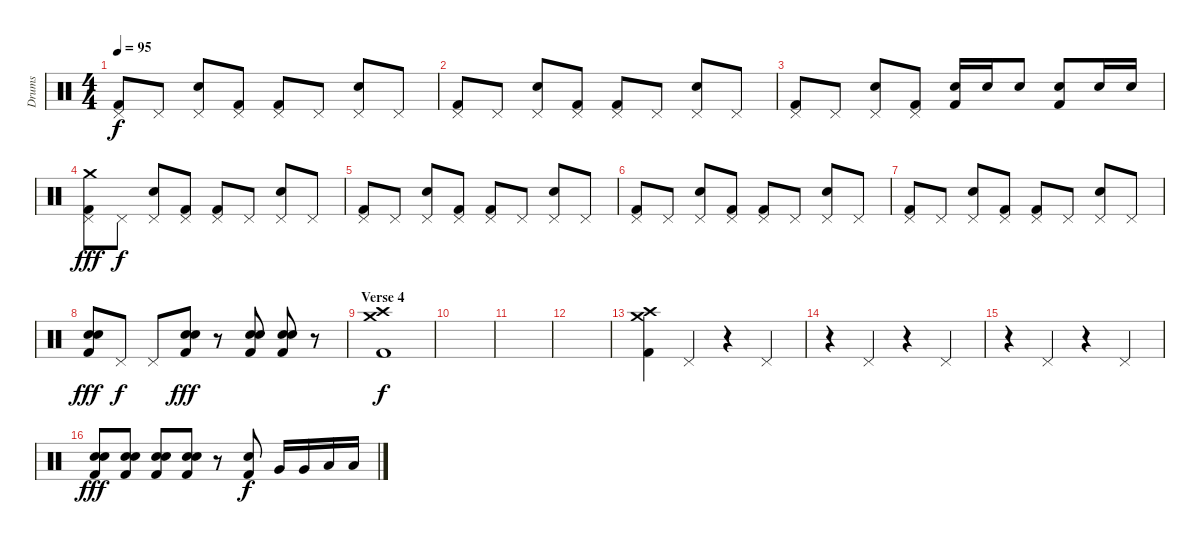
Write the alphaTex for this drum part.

\track ("Drums" "Drums") {instrument percussion}
\staff {score}
\articulation defaults
\ts (4 4)
\tempo 95
\clef neutral
\ks c
("Pedal Hi-Hat (hit)" "Kick (hit) 2").8{dy f} "Pedal Hi-Hat (hit)".8 ("Pedal Hi-Hat (hit)" "Snare (hit) 2").8 ("Pedal Hi-Hat (hit)" "Kick (hit) 2").8 ("Pedal Hi-Hat (hit)" "Kick (hit) 2").8 "Pedal Hi-Hat (hit)".8 ("Pedal Hi-Hat (hit)" "Snare (hit) 2").8 "Pedal Hi-Hat (hit)".8 |
("Pedal Hi-Hat (hit)" "Kick (hit) 2").8 "Pedal Hi-Hat (hit)".8 ("Pedal Hi-Hat (hit)" "Snare (hit) 2").8 ("Pedal Hi-Hat (hit)" "Kick (hit) 2").8 ("Pedal Hi-Hat (hit)" "Kick (hit) 2").8 "Pedal Hi-Hat (hit)".8 ("Pedal Hi-Hat (hit)" "Snare (hit) 2").8 "Pedal Hi-Hat (hit)".8 |
("Pedal Hi-Hat (hit)" "Kick (hit) 2").8 "Pedal Hi-Hat (hit)".8 ("Pedal Hi-Hat (hit)" "Snare (hit) 2").8 ("Pedal Hi-Hat (hit)" "Kick (hit) 2").8 ("Snare (hit) 2" "Kick (hit) 2").16 "Snare (hit) 2".16 "Snare (hit) 2".8 ("Snare (hit) 2" "Kick (hit) 2").8 "Snare (hit) 2".16 "Snare (hit) 2".16 |
("Crash medium (hit)" "Pedal Hi-Hat (hit)" "Kick (hit) 2").8{dy fff} "Pedal Hi-Hat (hit)".8{dy f} ("Pedal Hi-Hat (hit)" "Snare (hit) 2").8 ("Pedal Hi-Hat (hit)" "Kick (hit) 2").8 ("Pedal Hi-Hat (hit)" "Kick (hit) 2").8 "Pedal Hi-Hat (hit)".8 ("Pedal Hi-Hat (hit)" "Snare (hit) 2").8 "Pedal Hi-Hat (hit)".8 |
("Pedal Hi-Hat (hit)" "Kick (hit) 2").8 "Pedal Hi-Hat (hit)".8 ("Pedal Hi-Hat (hit)" "Snare (hit) 2").8 ("Pedal Hi-Hat (hit)" "Kick (hit) 2").8 ("Pedal Hi-Hat (hit)" "Kick (hit) 2").8 "Pedal Hi-Hat (hit)".8 ("Pedal Hi-Hat (hit)" "Snare (hit) 2").8 "Pedal Hi-Hat (hit)".8 |
("Pedal Hi-Hat (hit)" "Kick (hit) 2").8 "Pedal Hi-Hat (hit)".8 ("Pedal Hi-Hat (hit)" "Snare (hit) 2").8 ("Pedal Hi-Hat (hit)" "Kick (hit) 2").8 ("Pedal Hi-Hat (hit)" "Kick (hit) 2").8 "Pedal Hi-Hat (hit)".8 ("Pedal Hi-Hat (hit)" "Snare (hit) 2").8 "Pedal Hi-Hat (hit)".8 |
("Pedal Hi-Hat (hit)" "Kick (hit) 2").8 "Pedal Hi-Hat (hit)".8 ("Pedal Hi-Hat (hit)" "Snare (hit) 2").8 ("Pedal Hi-Hat (hit)" "Kick (hit) 2").8 ("Pedal Hi-Hat (hit)" "Kick (hit) 2").8 "Pedal Hi-Hat (hit)".8 ("Pedal Hi-Hat (hit)" "Snare (hit) 2").8 "Pedal Hi-Hat (hit)".8 |
("Snare (hit) 2" "Snare (hit) 2" "Kick (hit) 2").8{dy fff} "Pedal Hi-Hat (hit)".8{dy f} "Pedal Hi-Hat (hit)".8 ("Snare (hit) 2" "Snare (hit) 2" "Kick (hit) 2").8{dy fff} r.8 ("Snare (hit) 2" "Snare (hit) 2" "Kick (hit) 2").8 ("Snare (hit) 2" "Snare (hit) 2" "Kick (hit) 2").8 r.8 |
\section ("" "Verse 4")
("Crash medium (hit)" "Crash high (hit)" "Kick (hit) 2").1{dy f} |
|
|
|
("Crash medium (hit)" "Crash high (hit)" "Kick (hit) 2").4 "Pedal Hi-Hat (hit)".4 r.4 "Pedal Hi-Hat (hit)".4 |
r.4 "Pedal Hi-Hat (hit)".4 r.4 "Pedal Hi-Hat (hit)".4 |
r.4 "Pedal Hi-Hat (hit)".4 r.4 "Pedal Hi-Hat (hit)".4 |
("Snare (hit) 2" "Snare (hit) 2" "Kick (hit) 2").8{dy fff} ("Snare (hit) 2" "Snare (hit) 2" "Kick (hit) 2").8 ("Snare (hit) 2" "Snare (hit) 2" "Kick (hit) 2").8 ("Snare (hit) 2" "Snare (hit) 2" "Kick (hit) 2").8 r.8 ("Snare (hit) 2" "Kick (hit) 2").8{dy f} "Very Low Tom (hit)".16 "Very Low Tom (hit)".16 "Low Floor Tom (hit)".16 "Low Floor Tom (hit)".16
